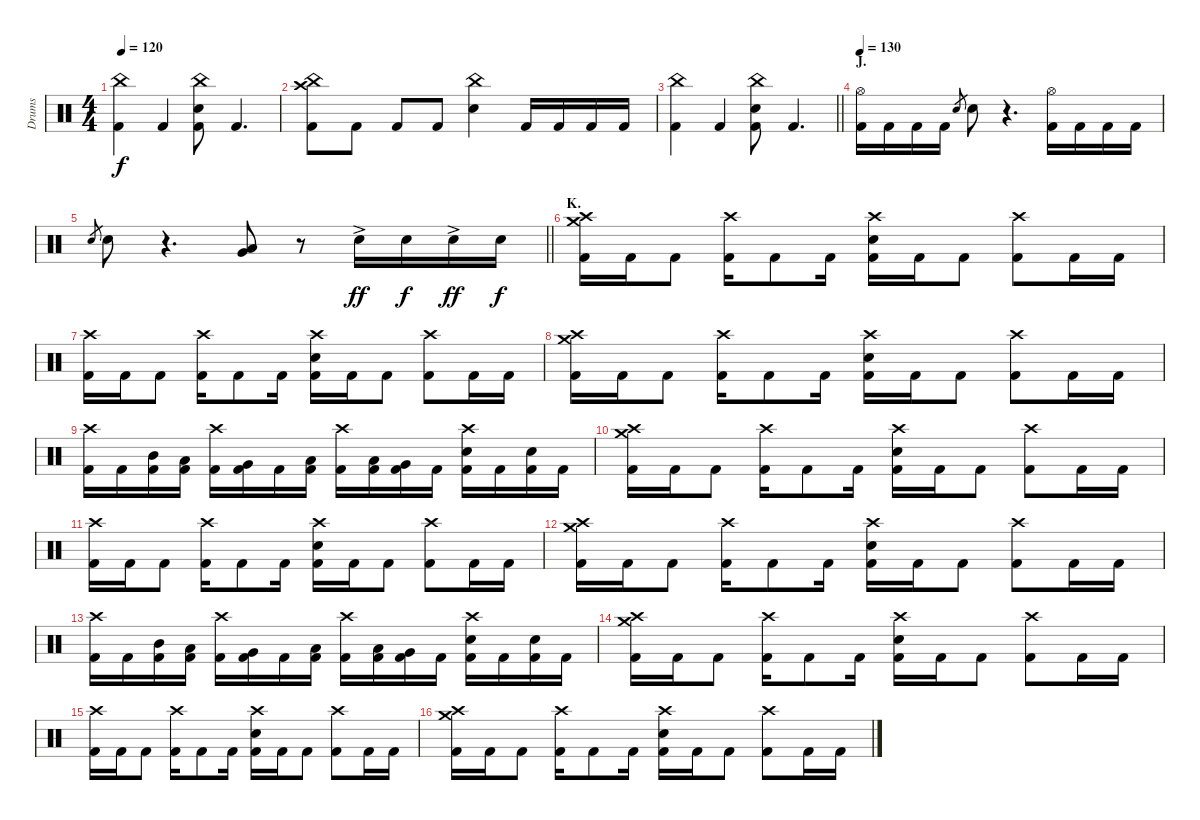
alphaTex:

\track ("Drums" "Drums") {instrument percussion}
\staff {score}
\articulation defaults
\ts (4 4)
\tempo 120
\clef neutral
\ks c
("China (hit)" "Kick (hit) 2").4{dy f} "Kick (hit) 2".4 ("China (hit)" "Electric Snare (hit)" "Kick (hit) 2").8 "Kick (hit) 2".4{d} |
("China (hit)" "Crash high (hit)" "Kick (hit) 2").8 "Kick (hit) 2".8 "Kick (hit) 2".8 "Kick (hit) 2".8 ("China (hit)" "Electric Snare (hit)").4 "Kick (hit) 2".16 "Kick (hit) 2".16 "Kick (hit) 2".16 "Kick (hit) 2".16 |
\barLineRight lightlight
("China (hit)" "Kick (hit) 2").4 "Kick (hit) 2".4 ("China (hit)" "Electric Snare (hit)" "Kick (hit) 2").8 "Kick (hit) 2".4{d} |
\section ("" "J.")
\tempo 130
("Hi-Hat (open)" "Kick (hit) 2").16 "Kick (hit) 2".16 "Kick (hit) 2".16 "Kick (hit) 2".16 "Electric Snare (hit)".8{gr} "Electric Snare (hit)".8 r.4{d} ("Hi-Hat (open)" "Kick (hit) 2").16 "Kick (hit) 2".16 "Kick (hit) 2".16 "Kick (hit) 2".16 |
\barLineRight lightlight "Electric Snare (hit)".8{gr} "Electric Snare (hit)".8
r.4{d} ("Very Low Tom (hit)" "Low Floor Tom (hit)").8{bu 120} r.8 "Electric Snare (hit)"{ac}.16{dy ff} "Electric Snare (hit)".16{dy f} "Electric Snare (hit)"{ac}.16{dy ff} "Electric Snare (hit)".16{dy f} |
\section ("" "K.")
("Crash medium (hit)" "Crash high (hit)" "Kick (hit) 2").16 "Kick (hit) 2".16 "Kick (hit) 2".8 ("Crash high (hit)" "Kick (hit) 2").16 "Kick (hit) 2".8 "Kick (hit) 2".16 ("Crash high (hit)" "Electric Snare (hit)" "Kick (hit) 2").16 "Kick (hit) 2".16 "Kick (hit) 2".8 ("Crash high (hit)" "Kick (hit) 2").8 "Kick (hit) 2".16 "Kick (hit) 2".16 |
("Crash high (hit)" "Kick (hit) 2").16 "Kick (hit) 2".16 "Kick (hit) 2".8 ("Crash high (hit)" "Kick (hit) 2").16 "Kick (hit) 2".8 "Kick (hit) 2".16 ("Crash high (hit)" "Electric Snare (hit)" "Kick (hit) 2").16 "Kick (hit) 2".16 "Kick (hit) 2".8 ("Crash high (hit)" "Kick (hit) 2").8 "Kick (hit) 2".16 "Kick (hit) 2".16 |
("Crash medium (hit)" "Crash high (hit)" "Kick (hit) 2").16 "Kick (hit) 2".16 "Kick (hit) 2".8 ("Crash high (hit)" "Kick (hit) 2").16 "Kick (hit) 2".8 "Kick (hit) 2".16 ("Crash high (hit)" "Electric Snare (hit)" "Kick (hit) 2").16 "Kick (hit) 2".16 "Kick (hit) 2".8 ("Crash high (hit)" "Kick (hit) 2").8 "Kick (hit) 2".16 "Kick (hit) 2".16 |
("Crash high (hit)" "Kick (hit) 2").16 "Kick (hit) 2".16 ("Mid Tom (hit)" "Kick (hit) 2").16 ("Low Tom (hit)" "Kick (hit) 2").16 ("Crash high (hit)" "Kick (hit) 2").16 ("Very Low Tom (hit)" "Kick (hit) 2").16 "Kick (hit) 2".16 ("Low Tom (hit)" "Kick (hit) 2").16 ("Crash high (hit)" "Kick (hit) 2").16 ("Low Tom (hit)" "Kick (hit) 2").16 ("Very Low Tom (hit)" "Kick (hit) 2").16 "Kick (hit) 2".16 ("Crash high (hit)" "Electric Snare (hit)" "Kick (hit) 2").16 "Kick (hit) 2".16 ("Electric Snare (hit)" "Kick (hit) 2").16 "Kick (hit) 2".16 |
("Crash medium (hit)" "Crash high (hit)" "Kick (hit) 2").16 "Kick (hit) 2".16 "Kick (hit) 2".8 ("Crash high (hit)" "Kick (hit) 2").16 "Kick (hit) 2".8 "Kick (hit) 2".16 ("Crash high (hit)" "Electric Snare (hit)" "Kick (hit) 2").16 "Kick (hit) 2".16 "Kick (hit) 2".8 ("Crash high (hit)" "Kick (hit) 2").8 "Kick (hit) 2".16 "Kick (hit) 2".16 |
("Crash high (hit)" "Kick (hit) 2").16 "Kick (hit) 2".16 "Kick (hit) 2".8 ("Crash high (hit)" "Kick (hit) 2").16 "Kick (hit) 2".8 "Kick (hit) 2".16 ("Crash high (hit)" "Electric Snare (hit)" "Kick (hit) 2").16 "Kick (hit) 2".16 "Kick (hit) 2".8 ("Crash high (hit)" "Kick (hit) 2").8 "Kick (hit) 2".16 "Kick (hit) 2".16 |
("Crash medium (hit)" "Crash high (hit)" "Kick (hit) 2").16 "Kick (hit) 2".16 "Kick (hit) 2".8 ("Crash high (hit)" "Kick (hit) 2").16 "Kick (hit) 2".8 "Kick (hit) 2".16 ("Crash high (hit)" "Electric Snare (hit)" "Kick (hit) 2").16 "Kick (hit) 2".16 "Kick (hit) 2".8 ("Crash high (hit)" "Kick (hit) 2").8 "Kick (hit) 2".16 "Kick (hit) 2".16 |
("Crash high (hit)" "Kick (hit) 2").16 "Kick (hit) 2".16 ("Mid Tom (hit)" "Kick (hit) 2").16 ("Low Tom (hit)" "Kick (hit) 2").16 ("Crash high (hit)" "Kick (hit) 2").16 ("Very Low Tom (hit)" "Kick (hit) 2").16 "Kick (hit) 2".16 ("Low Tom (hit)" "Kick (hit) 2").16 ("Crash high (hit)" "Kick (hit) 2").16 ("Low Tom (hit)" "Kick (hit) 2").16 ("Very Low Tom (hit)" "Kick (hit) 2").16 "Kick (hit) 2".16 ("Crash high (hit)" "Electric Snare (hit)" "Kick (hit) 2").16 "Kick (hit) 2".16 ("Electric Snare (hit)" "Kick (hit) 2").16 "Kick (hit) 2".16 |
("Crash medium (hit)" "Crash high (hit)" "Kick (hit) 2").16 "Kick (hit) 2".16 "Kick (hit) 2".8 ("Crash high (hit)" "Kick (hit) 2").16 "Kick (hit) 2".8 "Kick (hit) 2".16 ("Crash high (hit)" "Electric Snare (hit)" "Kick (hit) 2").16 "Kick (hit) 2".16 "Kick (hit) 2".8 ("Crash high (hit)" "Kick (hit) 2").8 "Kick (hit) 2".16 "Kick (hit) 2".16 |
("Crash high (hit)" "Kick (hit) 2").16 "Kick (hit) 2".16 "Kick (hit) 2".8 ("Crash high (hit)" "Kick (hit) 2").16 "Kick (hit) 2".8 "Kick (hit) 2".16 ("Crash high (hit)" "Electric Snare (hit)" "Kick (hit) 2").16 "Kick (hit) 2".16 "Kick (hit) 2".8 ("Crash high (hit)" "Kick (hit) 2").8 "Kick (hit) 2".16 "Kick (hit) 2".16 |
("Crash medium (hit)" "Crash high (hit)" "Kick (hit) 2").16 "Kick (hit) 2".16 "Kick (hit) 2".8 ("Crash high (hit)" "Kick (hit) 2").16 "Kick (hit) 2".8 "Kick (hit) 2".16 ("Crash high (hit)" "Electric Snare (hit)" "Kick (hit) 2").16 "Kick (hit) 2".16 "Kick (hit) 2".8 ("Crash high (hit)" "Kick (hit) 2").8 "Kick (hit) 2".16 "Kick (hit) 2".16
